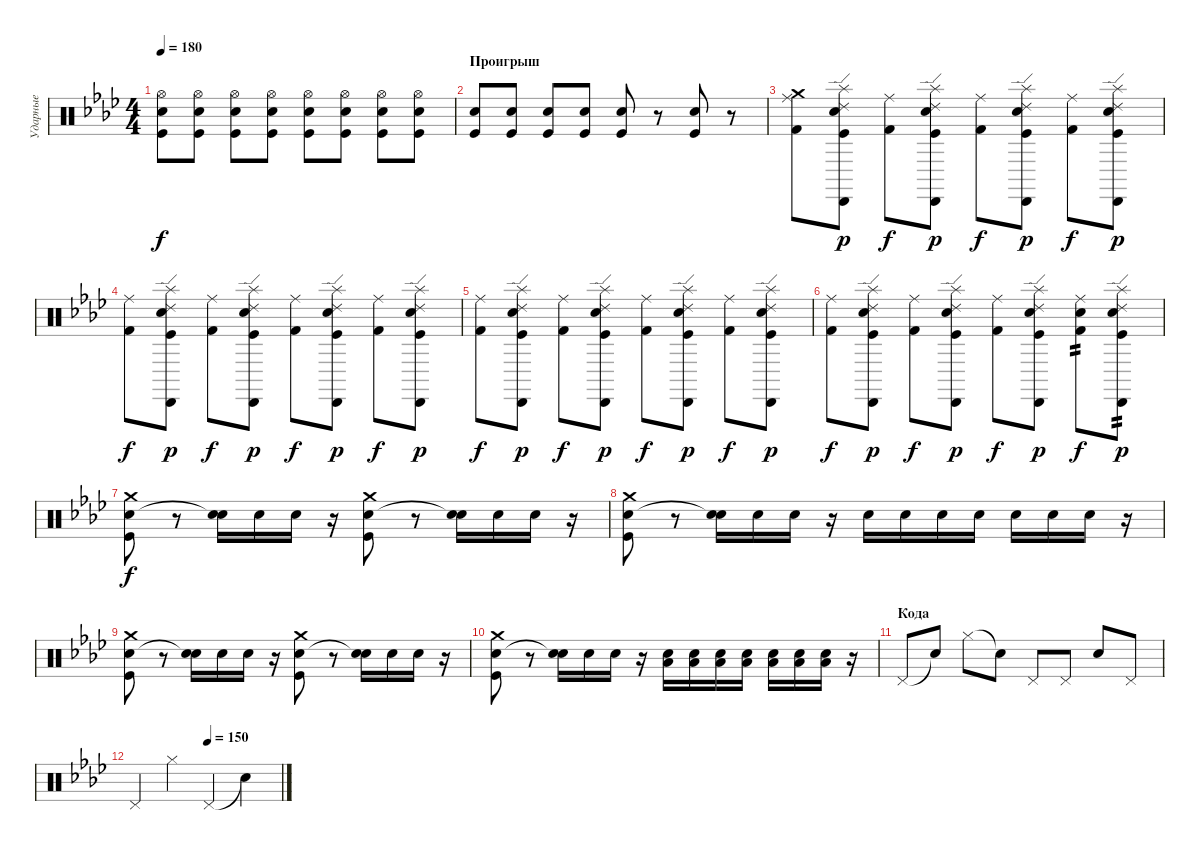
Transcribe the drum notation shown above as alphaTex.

\track ("Ударные" "Ударные") {instrument percussion}
\staff {score}
\articulation defaults
\ts (4 4)
\tempo 180
\clef neutral
\ks ab
("Electric Snare (hit)" "Kick (hit)" "Hi-Hat (open)").8{dy f} ("Kick (hit)" "Electric Snare (hit)" "Hi-Hat (open)").8 ("Kick (hit)" "Electric Snare (hit)" "Hi-Hat (open)").8 ("Kick (hit)" "Electric Snare (hit)" "Hi-Hat (open)").8 ("Kick (hit)" "Electric Snare (hit)" "Hi-Hat (open)").8 ("Kick (hit)" "Electric Snare (hit)" "Hi-Hat (open)").8 ("Kick (hit)" "Electric Snare (hit)" "Hi-Hat (open)").8 ("Electric Snare (hit)" "Kick (hit)" "Hi-Hat (open)").8 |
\section ("" "Проигрыш")
("Kick (hit)" "Snare (hit) 2").8 ("Kick (hit)" "Snare (hit) 2").8 ("Kick (hit)" "Snare (hit) 2").8 ("Kick (hit)" "Snare (hit) 2").8 ("Kick (hit)" "Snare (hit) 2").8 r.8 ("Kick (hit)" "Snare (hit) 2").8 r.8 |
("Ride (middle)" "Kick (hit) 2" "Crash medium (hit)").8 ("Ride (edge) 2" "Cabasa (hit)" "Electric Snare (hit)" "Kick (hit)" "Splash (hit)").8{dy p} ("Ride (middle)" "Kick (hit) 2").8{dy f} ("Ride (edge) 2" "Cabasa (hit)" "Electric Snare (hit)" "Kick (hit)" "Splash (hit)").8{dy p} ("Ride (middle)" "Kick (hit) 2").8{dy f} ("Ride (edge) 2" "Cabasa (hit)" "Electric Snare (hit)" "Kick (hit)" "Splash (hit)").8{dy p} ("Ride (middle)" "Kick (hit) 2").8{dy f} ("Ride (edge) 2" "Cabasa (hit)" "Electric Snare (hit)" "Kick (hit)" "Splash (hit)").8{dy p} |
("Ride (middle)" "Kick (hit) 2").8{dy f} ("Ride (edge) 2" "Cabasa (hit)" "Electric Snare (hit)" "Kick (hit)" "Splash (hit)").8{dy p} ("Ride (middle)" "Kick (hit) 2").8{dy f} ("Ride (edge) 2" "Cabasa (hit)" "Electric Snare (hit)" "Kick (hit)" "Splash (hit)").8{dy p} ("Ride (middle)" "Kick (hit) 2").8{dy f} ("Ride (edge) 2" "Cabasa (hit)" "Electric Snare (hit)" "Kick (hit)" "Splash (hit)").8{dy p} ("Ride (middle)" "Kick (hit) 2").8{dy f} ("Ride (edge) 2" "Cabasa (hit)" "Electric Snare (hit)" "Kick (hit)" "Splash (hit)").8{dy p} |
("Ride (middle)" "Kick (hit) 2").8{dy f} ("Ride (edge) 2" "Cabasa (hit)" "Electric Snare (hit)" "Kick (hit)" "Splash (hit)").8{dy p} ("Ride (middle)" "Kick (hit) 2").8{dy f} ("Ride (edge) 2" "Cabasa (hit)" "Electric Snare (hit)" "Kick (hit)" "Splash (hit)").8{dy p} ("Ride (middle)" "Kick (hit) 2").8{dy f} ("Ride (edge) 2" "Cabasa (hit)" "Electric Snare (hit)" "Kick (hit)" "Splash (hit)").8{dy p} ("Ride (middle)" "Kick (hit) 2").8{dy f} ("Ride (edge) 2" "Cabasa (hit)" "Electric Snare (hit)" "Kick (hit)" "Splash (hit)").8{dy p} |
("Ride (middle)" "Kick (hit) 2").8{dy f} ("Ride (edge) 2" "Cabasa (hit)" "Electric Snare (hit)" "Kick (hit)" "Splash (hit)").8{dy p} ("Ride (middle)" "Kick (hit) 2").8{dy f} ("Ride (edge) 2" "Cabasa (hit)" "Electric Snare (hit)" "Kick (hit)" "Splash (hit)").8{dy p} ("Ride (middle)" "Kick (hit) 2").8{dy f} ("Ride (edge) 2" "Cabasa (hit)" "Electric Snare (hit)" "Kick (hit)" "Splash (hit)").8{dy p} ("Ride (middle)" "Kick (hit) 2" "Electric Snare (hit)").8{tp 2 dy f} ("Ride (edge) 2" "Cabasa (hit)" "Electric Snare (hit)" "Kick (hit)" "Splash (hit)").8{tp 2 dy p} |
("Kick (hit)" "Electric Snare (hit)" "Crash medium (hit)").8{dy f} r.8 ("Electric Snare (hit)" "Snare (hit)"{t}).16 "Electric Snare (hit)".16 "Electric Snare (hit)".16 r.16 ("Kick (hit)" "Electric Snare (hit)" "Crash medium (hit)").8 r.8 ("Electric Snare (hit)" "Snare (hit)"{t}).16 "Electric Snare (hit)".16 "Electric Snare (hit)".16 r.16 |
("Kick (hit)" "Electric Snare (hit)" "Crash medium (hit)").8 r.8 ("Electric Snare (hit)" "Snare (hit)"{t}).16 "Electric Snare (hit)".16 "Electric Snare (hit)".16 r.16 "Electric Snare (hit)".16 "Electric Snare (hit)".16 "Electric Snare (hit)".16 "Electric Snare (hit)".16 "Electric Snare (hit)".16 "Electric Snare (hit)".16 "Electric Snare (hit)".16 r.16 |
("Kick (hit)" "Electric Snare (hit)" "Crash medium (hit)").8 r.8 ("Electric Snare (hit)" "Snare (hit)"{t}).16 "Electric Snare (hit)".16 "Electric Snare (hit)".16 r.16 ("Kick (hit)" "Electric Snare (hit)" "Crash medium (hit)").8 r.8 ("Electric Snare (hit)" "Snare (hit)"{t}).16 "Electric Snare (hit)".16 "Electric Snare (hit)".16 r.16 |
("Kick (hit)" "Electric Snare (hit)" "Crash medium (hit)").8 r.8 ("Electric Snare (hit)" "Snare (hit)"{t}).16 "Electric Snare (hit)".16 "Electric Snare (hit)".16 r.16 ("Electric Snare (hit)" "Low Tom (hit)").16 ("Electric Snare (hit)" "Low Tom (hit)").16 ("Electric Snare (hit)" "Low Tom (hit)").16 ("Electric Snare (hit)" "Low Tom (hit)").16 ("Electric Snare (hit)" "Low Tom (hit)").16 ("Electric Snare (hit)" "Low Tom (hit)").16 ("Electric Snare (hit)" "Low Tom (hit)").16 r.16 |
\section ("" "Кода")
"Pedal Hi-Hat (hit)".8 "Snare (hit)"{t}.8 "Hi-Hat (closed)".8 "Snare (hit)"{t}.8 "Pedal Hi-Hat (hit)".8 "Pedal Hi-Hat (hit)".8 "Snare (hit)"{x}.8 "Pedal Hi-Hat (hit)".8 |
\tempo (150 0.5)
"Pedal Hi-Hat (hit)".4 "Hi-Hat (closed)".4 "Pedal Hi-Hat (hit)".4 "Snare (hit)"{t}.4
